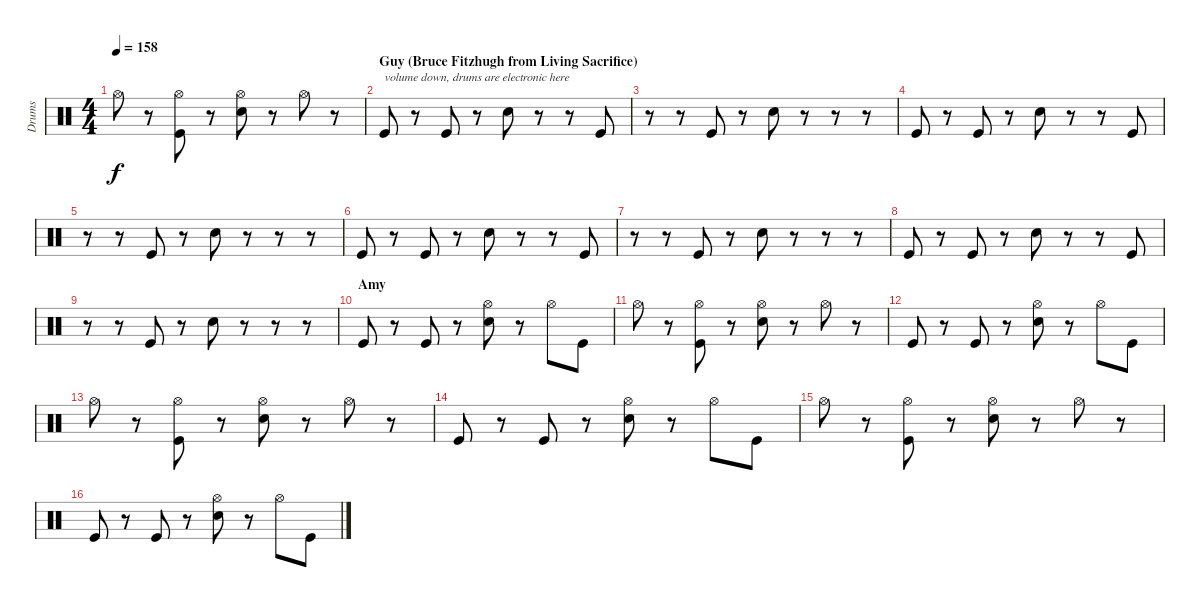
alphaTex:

\track ("Drums" "Drums") {instrument percussion}
\staff {score}
\articulation defaults
\ts (4 4)
\tempo 158
\clef neutral
\ks c "Hi-Hat (open)".8{dy f}
r.8 ("Hi-Hat (open)" "Kick (hit)").8 r.8 ("Hi-Hat (open)" "Snare (hit) 2").8 r.8 "Hi-Hat (open)".8 r.8 |
\section ("" "Guy (Bruce Fitzhugh from Living Sacrifice)")
"Kick (hit)".8{txt "volume down, drums are electronic here" volume 8} r.8 "Kick (hit)".8 r.8 "Snare (hit) 2".8 r.8 r.8 "Kick (hit)".8 |
r.8 r.8 "Kick (hit)".8 r.8 "Snare (hit) 2".8 r.8 r.8 r.8 |
"Kick (hit)".8 r.8 "Kick (hit)".8 r.8 "Snare (hit) 2".8 r.8 r.8 "Kick (hit)".8 |
r.8 r.8 "Kick (hit)".8 r.8 "Snare (hit) 2".8 r.8 r.8 r.8 |
"Kick (hit)".8 r.8 "Kick (hit)".8 r.8 "Snare (hit) 2".8 r.8 r.8 "Kick (hit)".8 |
r.8 r.8 "Kick (hit)".8 r.8 "Snare (hit) 2".8 r.8 r.8 r.8 |
"Kick (hit)".8 r.8 "Kick (hit)".8 r.8 "Snare (hit) 2".8 r.8 r.8 "Kick (hit)".8 |
r.8 r.8 "Kick (hit)".8 r.8 "Snare (hit) 2".8 r.8 r.8 r.8 |
\section ("" "Amy")
"Kick (hit)".8 r.8 "Kick (hit)".8 r.8 ("Hi-Hat (open)" "Snare (hit) 2").8 r.8 "Hi-Hat (open)".8 "Kick (hit)".8 |
"Hi-Hat (open)".8 r.8 ("Hi-Hat (open)" "Kick (hit)").8 r.8 ("Hi-Hat (open)" "Snare (hit) 2").8 r.8 "Hi-Hat (open)".8 r.8 |
"Kick (hit)".8 r.8 "Kick (hit)".8 r.8 ("Hi-Hat (open)" "Snare (hit) 2").8 r.8 "Hi-Hat (open)".8 "Kick (hit)".8 |
"Hi-Hat (open)".8 r.8 ("Hi-Hat (open)" "Kick (hit)").8 r.8 ("Hi-Hat (open)" "Snare (hit) 2").8 r.8 "Hi-Hat (open)".8 r.8 |
"Kick (hit)".8 r.8 "Kick (hit)".8 r.8 ("Hi-Hat (open)" "Snare (hit) 2").8 r.8 "Hi-Hat (open)".8 "Kick (hit)".8 |
"Hi-Hat (open)".8 r.8 ("Hi-Hat (open)" "Kick (hit)").8 r.8 ("Hi-Hat (open)" "Snare (hit) 2").8 r.8 "Hi-Hat (open)".8 r.8 |
"Kick (hit)".8 r.8 "Kick (hit)".8 r.8 ("Hi-Hat (open)" "Snare (hit) 2").8 r.8 "Hi-Hat (open)".8 "Kick (hit)".8
